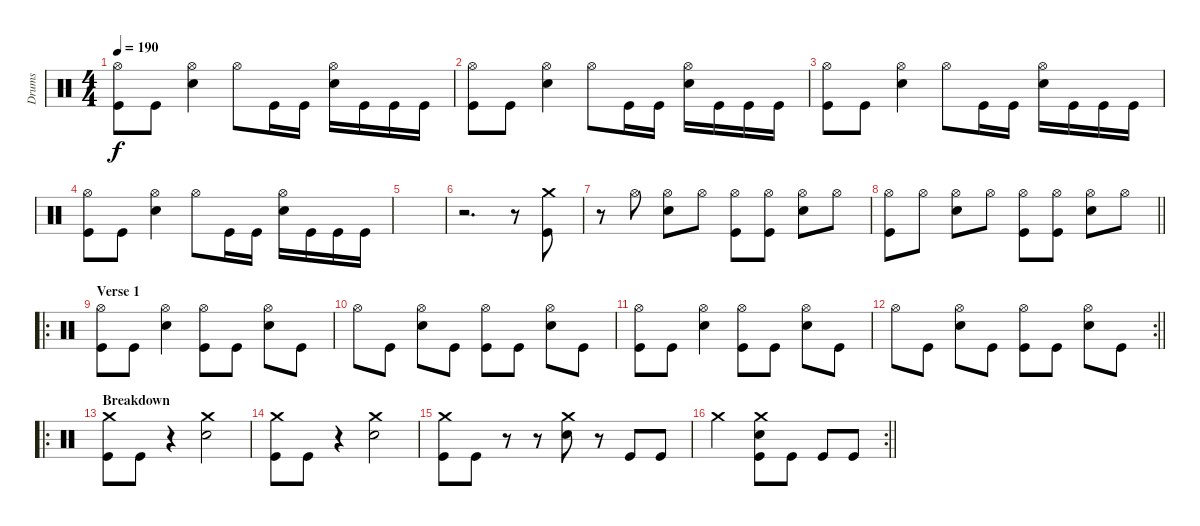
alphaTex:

\track ("Drums" "Drums") {instrument percussion}
\staff {score}
\articulation defaults
\ts (4 4)
\tempo 190
\clef neutral
\ks c
("Hi-Hat (open)" "Kick (hit)").8{dy f} "Kick (hit)".8 ("Hi-Hat (open)" "Snare (hit) 2").4 "Hi-Hat (open)".8 "Kick (hit)".16 "Kick (hit)".16 ("Hi-Hat (open)" "Snare (hit) 2").16 "Kick (hit)".16 "Kick (hit)".16 "Kick (hit)".16 |
("Hi-Hat (open)" "Kick (hit)").8 "Kick (hit)".8 ("Hi-Hat (open)" "Snare (hit) 2").4 "Hi-Hat (open)".8 "Kick (hit)".16 "Kick (hit)".16 ("Hi-Hat (open)" "Snare (hit) 2").16 "Kick (hit)".16 "Kick (hit)".16 "Kick (hit)".16 |
("Hi-Hat (open)" "Kick (hit)").8 "Kick (hit)".8 ("Hi-Hat (open)" "Snare (hit) 2").4 "Hi-Hat (open)".8 "Kick (hit)".16 "Kick (hit)".16 ("Hi-Hat (open)" "Snare (hit) 2").16 "Kick (hit)".16 "Kick (hit)".16 "Kick (hit)".16 |
("Hi-Hat (open)" "Kick (hit)").8 "Kick (hit)".8 ("Hi-Hat (open)" "Snare (hit) 2").4 "Hi-Hat (open)".8 "Kick (hit)".16 "Kick (hit)".16 ("Hi-Hat (open)" "Snare (hit) 2").16 "Kick (hit)".16 "Kick (hit)".16 "Kick (hit)".16 |
|
r.2{d} r.8 ("Crash medium (hit)" "Kick (hit)").8 |
r.8 "Hi-Hat (open)".8 ("Hi-Hat (open)" "Snare (hit) 2").8 "Hi-Hat (open)".8 ("Hi-Hat (open)" "Kick (hit)").8 ("Hi-Hat (open)" "Kick (hit)").8 ("Hi-Hat (open)" "Snare (hit) 2").8 "Hi-Hat (open)".8 |
\barLineRight lightlight
("Hi-Hat (open)" "Kick (hit)").8 "Hi-Hat (open)".8 ("Hi-Hat (open)" "Snare (hit) 2").8 "Hi-Hat (open)".8 ("Hi-Hat (open)" "Kick (hit)").8 ("Hi-Hat (open)" "Kick (hit)").8 ("Hi-Hat (open)" "Snare (hit) 2").8 "Hi-Hat (open)".8 |
\ro
\section ("" "Verse 1")
("Hi-Hat (open)" "Kick (hit)").8 "Kick (hit)".8 ("Hi-Hat (open)" "Snare (hit) 2").4 ("Hi-Hat (open)" "Kick (hit)").8 "Kick (hit)".8 ("Hi-Hat (open)" "Snare (hit) 2").8 "Kick (hit)".8 |
"Hi-Hat (open)".8 "Kick (hit)".8 ("Hi-Hat (open)" "Snare (hit) 2").8 "Kick (hit)".8 ("Hi-Hat (open)" "Kick (hit)").8 "Kick (hit)".8 ("Hi-Hat (open)" "Snare (hit) 2").8 "Kick (hit)".8 |
("Hi-Hat (open)" "Kick (hit)").8 "Kick (hit)".8 ("Hi-Hat (open)" "Snare (hit) 2").4 ("Hi-Hat (open)" "Kick (hit)").8 "Kick (hit)".8 ("Hi-Hat (open)" "Snare (hit) 2").8 "Kick (hit)".8 |
\rc 2
\barLineRight lightlight "Hi-Hat (open)".8 "Kick (hit)".8
("Hi-Hat (open)" "Snare (hit) 2").8 "Kick (hit)".8 ("Hi-Hat (open)" "Kick (hit)").8 "Kick (hit)".8 ("Hi-Hat (open)" "Snare (hit) 2").8 "Kick (hit)".8 |
\ro
\section ("" "Breakdown")
("Crash medium (hit)" "Kick (hit)").8 "Kick (hit)".8 r.4 ("Crash medium (hit)" "Snare (hit) 2").2 |
("Crash medium (hit)" "Kick (hit)").8 "Kick (hit)".8 r.4 ("Crash medium (hit)" "Snare (hit) 2").2 |
("Crash medium (hit)" "Kick (hit)").8 "Kick (hit)".8 r.8 r.8 ("Crash medium (hit)" "Snare (hit) 2").8 r.8 "Kick (hit)".8 "Kick (hit)".8 |
\rc 2
\barLineRight lightlight "Crash medium (hit)".2
("Crash medium (hit)" "Snare (hit) 2" "Kick (hit)").8 "Kick (hit)".8 "Kick (hit)".8 "Kick (hit)".8
